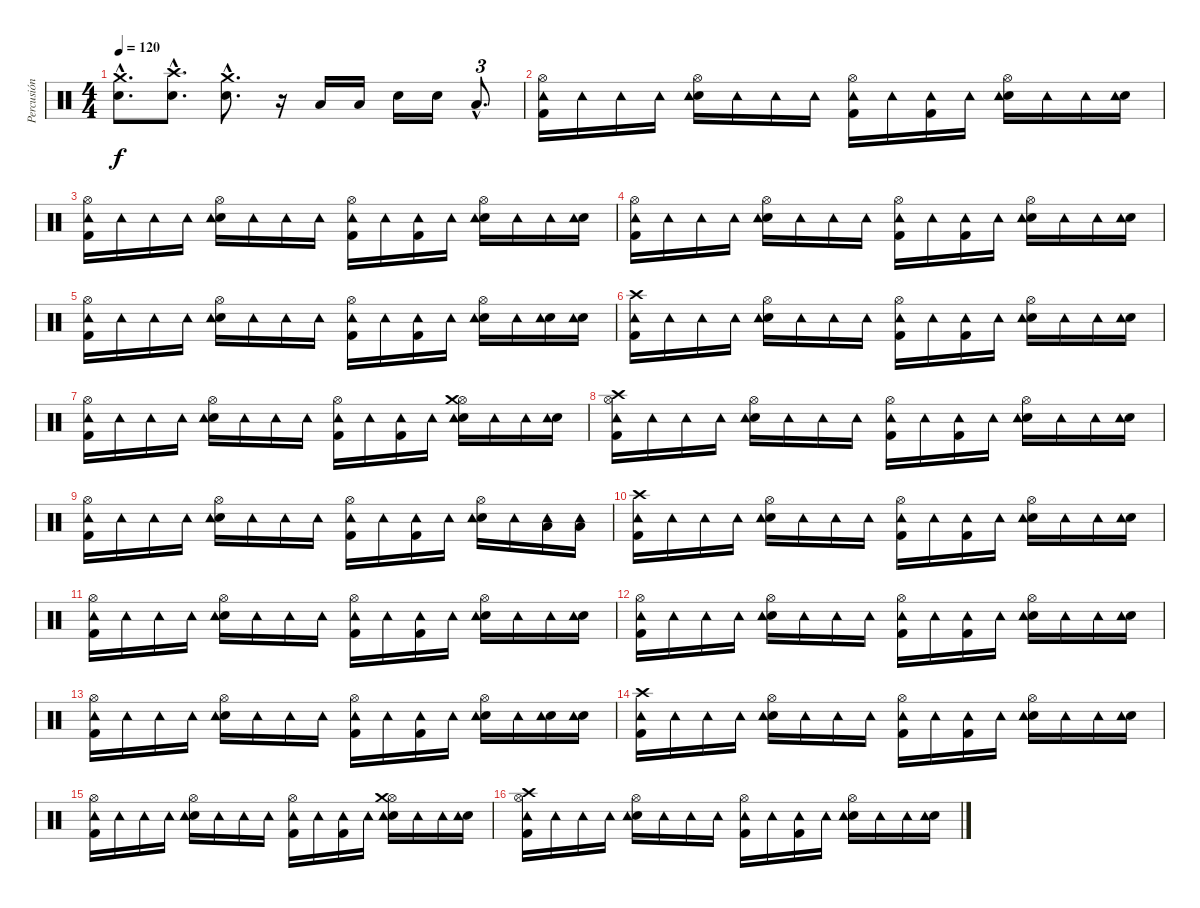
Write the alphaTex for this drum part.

\track ("Percusión" "Percusión") {instrument percussion}
\staff {score}
\articulation defaults
\ts (4 4)
\tempo 120
\clef neutral
\ks c
("Crash medium (hit)"{hac} "Electric Snare (hit)"{hac}).8{d dy f} ("Crash high (hit)"{hac} "Electric Snare (hit)"{hac}).8{d} ("Crash medium (hit)"{hac} "Electric Snare (hit)"{hac}).8{d} r.16 "Low Floor Tom (hit)".16 "Low Floor Tom (hit)".16 "Electric Snare (hit)".16 "Electric Snare (hit)".16 "Low Tom (hit)"{hac}.8{d tu (3 2)} |
("Hi-Hat (open)" "Kick (hit) 2" "Tambourine (hit)").16 "Tambourine (hit)".16 "Tambourine (hit)".16 "Tambourine (hit)".16 ("Hi-Hat (open)" "Electric Snare (hit)" "Tambourine (hit)").16 "Tambourine (hit)".16 "Tambourine (hit)".16 "Tambourine (hit)".16 ("Hi-Hat (open)" "Kick (hit) 2" "Tambourine (hit)").16 "Tambourine (hit)".16 ("Kick (hit) 2" "Tambourine (hit)").16 "Tambourine (hit)".16 ("Hi-Hat (open)" "Electric Snare (hit)" "Tambourine (hit)").16 "Tambourine (hit)".16 "Tambourine (hit)".16 ("Electric Snare (hit)" "Tambourine (hit)").16 |
("Hi-Hat (open)" "Kick (hit) 2" "Tambourine (hit)").16 "Tambourine (hit)".16 "Tambourine (hit)".16 "Tambourine (hit)".16 ("Hi-Hat (open)" "Electric Snare (hit)" "Tambourine (hit)").16 "Tambourine (hit)".16 "Tambourine (hit)".16 "Tambourine (hit)".16 ("Hi-Hat (open)" "Kick (hit) 2" "Tambourine (hit)").16 "Tambourine (hit)".16 ("Kick (hit) 2" "Tambourine (hit)").16 "Tambourine (hit)".16 ("Hi-Hat (open)" "Electric Snare (hit)" "Tambourine (hit)").16 "Tambourine (hit)".16 "Tambourine (hit)".16 ("Electric Snare (hit)" "Tambourine (hit)").16 |
("Hi-Hat (open)" "Kick (hit) 2" "Tambourine (hit)").16 "Tambourine (hit)".16 "Tambourine (hit)".16 "Tambourine (hit)".16 ("Hi-Hat (open)" "Electric Snare (hit)" "Tambourine (hit)").16 "Tambourine (hit)".16 "Tambourine (hit)".16 "Tambourine (hit)".16 ("Hi-Hat (open)" "Kick (hit) 2" "Tambourine (hit)").16 "Tambourine (hit)".16 ("Kick (hit) 2" "Tambourine (hit)").16 "Tambourine (hit)".16 ("Hi-Hat (open)" "Electric Snare (hit)" "Tambourine (hit)").16 "Tambourine (hit)".16 "Tambourine (hit)".16 ("Electric Snare (hit)" "Tambourine (hit)").16 |
("Hi-Hat (open)" "Kick (hit) 2" "Tambourine (hit)").16 "Tambourine (hit)".16 "Tambourine (hit)".16 "Tambourine (hit)".16 ("Hi-Hat (open)" "Electric Snare (hit)" "Tambourine (hit)").16 "Tambourine (hit)".16 "Tambourine (hit)".16 "Tambourine (hit)".16 ("Hi-Hat (open)" "Kick (hit) 2" "Tambourine (hit)").16 "Tambourine (hit)".16 ("Kick (hit) 2" "Tambourine (hit)").16 "Tambourine (hit)".16 ("Hi-Hat (open)" "Electric Snare (hit)" "Tambourine (hit)").16 "Tambourine (hit)".16 ("Electric Snare (hit)" "Tambourine (hit)").16 ("Electric Snare (hit)" "Tambourine (hit)").16 |
("Crash high (hit)" "Kick (hit) 2" "Tambourine (hit)").16 "Tambourine (hit)".16 "Tambourine (hit)".16 "Tambourine (hit)".16 ("Hi-Hat (open)" "Electric Snare (hit)" "Tambourine (hit)").16 "Tambourine (hit)".16 "Tambourine (hit)".16 "Tambourine (hit)".16 ("Hi-Hat (open)" "Kick (hit) 2" "Tambourine (hit)").16 "Tambourine (hit)".16 ("Kick (hit) 2" "Tambourine (hit)").16 "Tambourine (hit)".16 ("Hi-Hat (open)" "Electric Snare (hit)" "Tambourine (hit)").16 "Tambourine (hit)".16 "Tambourine (hit)".16 ("Electric Snare (hit)" "Tambourine (hit)").16 |
("Hi-Hat (open)" "Kick (hit) 2" "Tambourine (hit)").16 "Tambourine (hit)".16 "Tambourine (hit)".16 "Tambourine (hit)".16 ("Hi-Hat (open)" "Electric Snare (hit)" "Tambourine (hit)").16 "Tambourine (hit)".16 "Tambourine (hit)".16 "Tambourine (hit)".16 ("Hi-Hat (open)" "Kick (hit) 2" "Tambourine (hit)").16 "Tambourine (hit)".16 ("Kick (hit) 2" "Tambourine (hit)").16 "Tambourine (hit)".16 ("Hi-Hat (open)" "Crash medium (hit)" "Electric Snare (hit)" "Tambourine (hit)").16 "Tambourine (hit)".16 "Tambourine (hit)".16 ("Electric Snare (hit)" "Tambourine (hit)").16 |
("Hi-Hat (open)" "Crash high (hit)" "Kick (hit) 2" "Tambourine (hit)").16 "Tambourine (hit)".16 "Tambourine (hit)".16 "Tambourine (hit)".16 ("Hi-Hat (open)" "Electric Snare (hit)" "Tambourine (hit)").16 "Tambourine (hit)".16 "Tambourine (hit)".16 "Tambourine (hit)".16 ("Hi-Hat (open)" "Kick (hit) 2" "Tambourine (hit)").16 "Tambourine (hit)".16 ("Kick (hit) 2" "Tambourine (hit)").16 "Tambourine (hit)".16 ("Hi-Hat (open)" "Electric Snare (hit)" "Tambourine (hit)").16 "Tambourine (hit)".16 "Tambourine (hit)".16 ("Electric Snare (hit)" "Tambourine (hit)").16 |
("Hi-Hat (open)" "Kick (hit) 2" "Tambourine (hit)").16 "Tambourine (hit)".16 "Tambourine (hit)".16 "Tambourine (hit)".16 ("Hi-Hat (open)" "Electric Snare (hit)" "Tambourine (hit)").16 "Tambourine (hit)".16 "Tambourine (hit)".16 "Tambourine (hit)".16 ("Hi-Hat (open)" "Kick (hit) 2" "Tambourine (hit)").16 "Tambourine (hit)".16 ("Kick (hit) 2" "Tambourine (hit)").16 "Tambourine (hit)".16 ("Hi-Hat (open)" "Electric Snare (hit)" "Tambourine (hit)").16 "Tambourine (hit)".16 ("Low Tom (hit)" "Tambourine (hit)").16 ("Low Tom (hit)" "Tambourine (hit)").16 |
("Crash high (hit)" "Kick (hit) 2" "Tambourine (hit)").16 "Tambourine (hit)".16 "Tambourine (hit)".16 "Tambourine (hit)".16 ("Hi-Hat (open)" "Electric Snare (hit)" "Tambourine (hit)").16 "Tambourine (hit)".16 "Tambourine (hit)".16 "Tambourine (hit)".16 ("Hi-Hat (open)" "Kick (hit) 2" "Tambourine (hit)").16 "Tambourine (hit)".16 ("Kick (hit) 2" "Tambourine (hit)").16 "Tambourine (hit)".16 ("Hi-Hat (open)" "Electric Snare (hit)" "Tambourine (hit)").16 "Tambourine (hit)".16 "Tambourine (hit)".16 ("Electric Snare (hit)" "Tambourine (hit)").16 |
("Hi-Hat (open)" "Kick (hit) 2" "Tambourine (hit)").16 "Tambourine (hit)".16 "Tambourine (hit)".16 "Tambourine (hit)".16 ("Hi-Hat (open)" "Electric Snare (hit)" "Tambourine (hit)").16 "Tambourine (hit)".16 "Tambourine (hit)".16 "Tambourine (hit)".16 ("Hi-Hat (open)" "Kick (hit) 2" "Tambourine (hit)").16 "Tambourine (hit)".16 ("Kick (hit) 2" "Tambourine (hit)").16 "Tambourine (hit)".16 ("Hi-Hat (open)" "Electric Snare (hit)" "Tambourine (hit)").16 "Tambourine (hit)".16 "Tambourine (hit)".16 ("Electric Snare (hit)" "Tambourine (hit)").16 |
("Hi-Hat (open)" "Kick (hit) 2" "Tambourine (hit)").16 "Tambourine (hit)".16 "Tambourine (hit)".16 "Tambourine (hit)".16 ("Hi-Hat (open)" "Electric Snare (hit)" "Tambourine (hit)").16 "Tambourine (hit)".16 "Tambourine (hit)".16 "Tambourine (hit)".16 ("Hi-Hat (open)" "Kick (hit) 2" "Tambourine (hit)").16 "Tambourine (hit)".16 ("Kick (hit) 2" "Tambourine (hit)").16 "Tambourine (hit)".16 ("Hi-Hat (open)" "Electric Snare (hit)" "Tambourine (hit)").16 "Tambourine (hit)".16 "Tambourine (hit)".16 ("Electric Snare (hit)" "Tambourine (hit)").16 |
("Hi-Hat (open)" "Kick (hit) 2" "Tambourine (hit)").16 "Tambourine (hit)".16 "Tambourine (hit)".16 "Tambourine (hit)".16 ("Hi-Hat (open)" "Electric Snare (hit)" "Tambourine (hit)").16 "Tambourine (hit)".16 "Tambourine (hit)".16 "Tambourine (hit)".16 ("Hi-Hat (open)" "Kick (hit) 2" "Tambourine (hit)").16 "Tambourine (hit)".16 ("Kick (hit) 2" "Tambourine (hit)").16 "Tambourine (hit)".16 ("Hi-Hat (open)" "Electric Snare (hit)" "Tambourine (hit)").16 "Tambourine (hit)".16 ("Electric Snare (hit)" "Tambourine (hit)").16 ("Electric Snare (hit)" "Tambourine (hit)").16 |
("Crash high (hit)" "Kick (hit) 2" "Tambourine (hit)").16 "Tambourine (hit)".16 "Tambourine (hit)".16 "Tambourine (hit)".16 ("Hi-Hat (open)" "Electric Snare (hit)" "Tambourine (hit)").16 "Tambourine (hit)".16 "Tambourine (hit)".16 "Tambourine (hit)".16 ("Hi-Hat (open)" "Kick (hit) 2" "Tambourine (hit)").16 "Tambourine (hit)".16 ("Kick (hit) 2" "Tambourine (hit)").16 "Tambourine (hit)".16 ("Hi-Hat (open)" "Electric Snare (hit)" "Tambourine (hit)").16 "Tambourine (hit)".16 "Tambourine (hit)".16 ("Electric Snare (hit)" "Tambourine (hit)").16 |
("Hi-Hat (open)" "Kick (hit) 2" "Tambourine (hit)").16 "Tambourine (hit)".16 "Tambourine (hit)".16 "Tambourine (hit)".16 ("Hi-Hat (open)" "Electric Snare (hit)" "Tambourine (hit)").16 "Tambourine (hit)".16 "Tambourine (hit)".16 "Tambourine (hit)".16 ("Hi-Hat (open)" "Kick (hit) 2" "Tambourine (hit)").16 "Tambourine (hit)".16 ("Kick (hit) 2" "Tambourine (hit)").16 "Tambourine (hit)".16 ("Hi-Hat (open)" "Crash medium (hit)" "Electric Snare (hit)" "Tambourine (hit)").16 "Tambourine (hit)".16 "Tambourine (hit)".16 ("Electric Snare (hit)" "Tambourine (hit)").16 |
("Hi-Hat (open)" "Crash high (hit)" "Kick (hit) 2" "Tambourine (hit)").16 "Tambourine (hit)".16 "Tambourine (hit)".16 "Tambourine (hit)".16 ("Hi-Hat (open)" "Electric Snare (hit)" "Tambourine (hit)").16 "Tambourine (hit)".16 "Tambourine (hit)".16 "Tambourine (hit)".16 ("Hi-Hat (open)" "Kick (hit) 2" "Tambourine (hit)").16 "Tambourine (hit)".16 ("Kick (hit) 2" "Tambourine (hit)").16 "Tambourine (hit)".16 ("Hi-Hat (open)" "Electric Snare (hit)" "Tambourine (hit)").16 "Tambourine (hit)".16 "Tambourine (hit)".16 ("Electric Snare (hit)" "Tambourine (hit)").16
